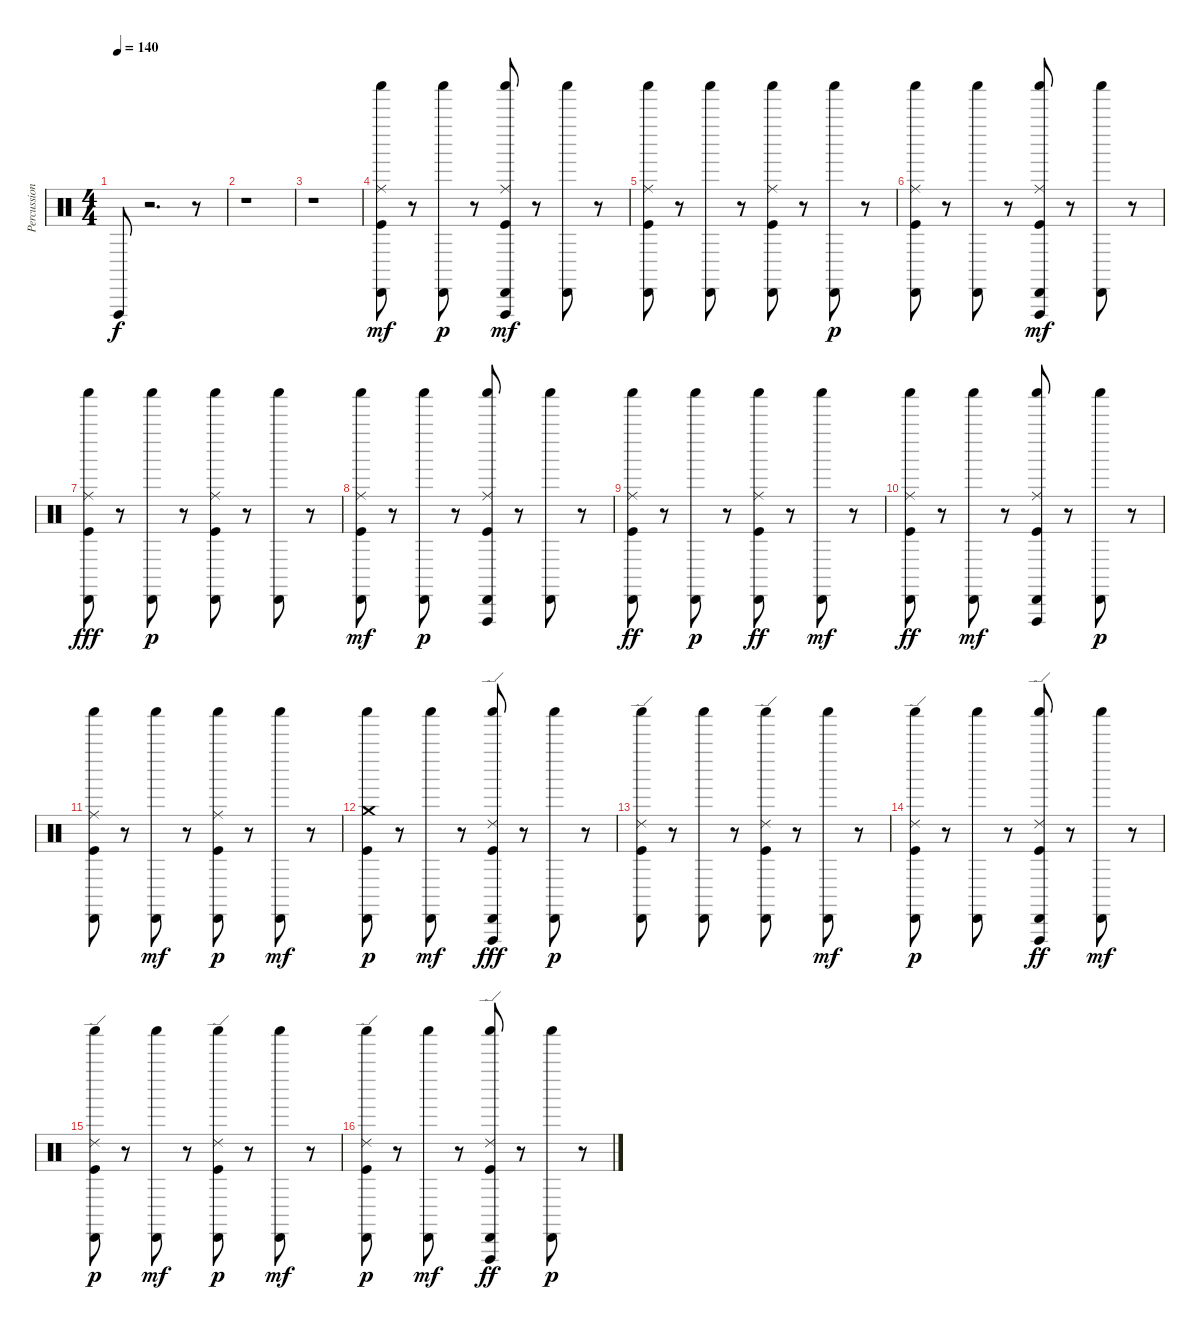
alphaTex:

\track ("Percussion Std Drums" "Percussion") {instrument percussion}
\staff {score}
\articulation defaults
\ts (4 4)
\tempo 140
\clef neutral
\ks c "Vibraslap (hit)".8{dy f}
r.2{d} r.8 |
r.1 |
r.1 |
("Shaker (hit)" "Ride (middle)" "Cabasa (hit)" "Kick (hit)").8{dy mf} r.8 ("Cabasa (hit)" "Shaker (hit)").8{dy p} r.8 ("Kick (hit)" "Shaker (hit)" "Vibraslap (hit)" "Ride (middle)" "Cabasa (hit)").8{dy mf} r.8 ("Shaker (hit)" "Cabasa (hit)").8 r.8 |
("Kick (hit)" "Shaker (hit)" "Ride (middle)" "Cabasa (hit)").8 r.8 ("Shaker (hit)" "Cabasa (hit)").8 r.8 ("Shaker (hit)" "Ride (middle)" "Cabasa (hit)" "Kick (hit)").8 r.8 ("Cabasa (hit)" "Shaker (hit)").8{dy p} r.8 |
("Cabasa (hit)" "Ride (middle)" "Shaker (hit)" "Kick (hit)").8 r.8 ("Cabasa (hit)" "Shaker (hit)").8 r.8 ("Vibraslap (hit)" "Ride (middle)" "Shaker (hit)" "Cabasa (hit)" "Kick (hit)").8{dy mf} r.8 ("Shaker (hit)" "Cabasa (hit)").8 r.8 |
("Kick (hit)" "Cabasa (hit)" "Shaker (hit)" "Ride (middle)").8{dy fff} r.8 ("Cabasa (hit)" "Shaker (hit)").8{dy p} r.8 ("Ride (middle)" "Cabasa (hit)" "Shaker (hit)" "Kick (hit)").8 r.8 ("Cabasa (hit)" "Shaker (hit)").8 r.8 |
("Shaker (hit)" "Ride (middle)" "Kick (hit)" "Cabasa (hit)").8{dy mf} r.8 ("Cabasa (hit)" "Shaker (hit)").8{dy p} r.8 ("Ride (middle)" "Vibraslap (hit)" "Cabasa (hit)" "Shaker (hit)" "Kick (hit)").8 r.8 ("Cabasa (hit)" "Shaker (hit)").8 r.8 |
("Kick (hit)" "Cabasa (hit)" "Shaker (hit)" "Ride (middle)").8{dy ff} r.8 ("Cabasa (hit)" "Shaker (hit)").8{dy p} r.8 ("Cabasa (hit)" "Kick (hit)" "Shaker (hit)" "Ride (middle)").8{dy ff} r.8 ("Shaker (hit)" "Cabasa (hit)").8{dy mf} r.8 |
("Shaker (hit)" "Cabasa (hit)" "Kick (hit)" "Ride (middle)").8{dy ff} r.8 ("Shaker (hit)" "Cabasa (hit)").8{dy mf} r.8 ("Kick (hit)" "Vibraslap (hit)" "Ride (middle)" "Shaker (hit)" "Cabasa (hit)").8 r.8 ("Cabasa (hit)" "Shaker (hit)").8{dy p} r.8 |
("Ride (middle)" "Cabasa (hit)" "Kick (hit)" "Shaker (hit)").8 r.8 ("Shaker (hit)" "Cabasa (hit)").8{dy mf} r.8 ("Ride (middle)" "Cabasa (hit)" "Kick (hit)" "Shaker (hit)").8{dy p} r.8 ("Shaker (hit)" "Cabasa (hit)").8{dy mf} r.8 |
("Cabasa (hit)" "Crash medium (hit)" "Kick (hit)" "Shaker (hit)").8{dy p} r.8 ("Shaker (hit)" "Cabasa (hit)").8{dy mf} r.8 ("Shaker (hit)" "Kick (hit)" "Ride (edge) 2" "Cabasa (hit)" "Vibraslap (hit)").8{dy fff} r.8 ("Cabasa (hit)" "Shaker (hit)").8{dy p} r.8 |
("Cabasa (hit)" "Ride (edge) 2" "Kick (hit)" "Shaker (hit)").8 r.8 ("Cabasa (hit)" "Shaker (hit)").8 r.8 ("Ride (edge) 2" "Cabasa (hit)" "Shaker (hit)" "Kick (hit)").8 r.8 ("Shaker (hit)" "Cabasa (hit)").8{dy mf} r.8 |
("Ride (edge) 2" "Cabasa (hit)" "Shaker (hit)" "Kick (hit)").8{dy p} r.8 ("Cabasa (hit)" "Shaker (hit)").8 r.8 ("Vibraslap (hit)" "Cabasa (hit)" "Shaker (hit)" "Ride (edge) 2" "Kick (hit)").8{dy ff} r.8 ("Shaker (hit)" "Cabasa (hit)").8{dy mf} r.8 |
("Ride (edge) 2" "Cabasa (hit)" "Shaker (hit)" "Kick (hit)").8{dy p} r.8 ("Shaker (hit)" "Cabasa (hit)").8{dy mf} r.8 ("Kick (hit)" "Ride (edge) 2" "Cabasa (hit)" "Shaker (hit)").8{dy p} r.8 ("Shaker (hit)" "Cabasa (hit)").8{dy mf} r.8 |
("Ride (edge) 2" "Kick (hit)" "Cabasa (hit)" "Shaker (hit)").8{dy p} r.8 ("Shaker (hit)" "Cabasa (hit)").8{dy mf} r.8 ("Shaker (hit)" "Ride (edge) 2" "Cabasa (hit)" "Kick (hit)" "Vibraslap (hit)").8{dy ff} r.8 ("Cabasa (hit)" "Shaker (hit)").8{dy p} r.8
